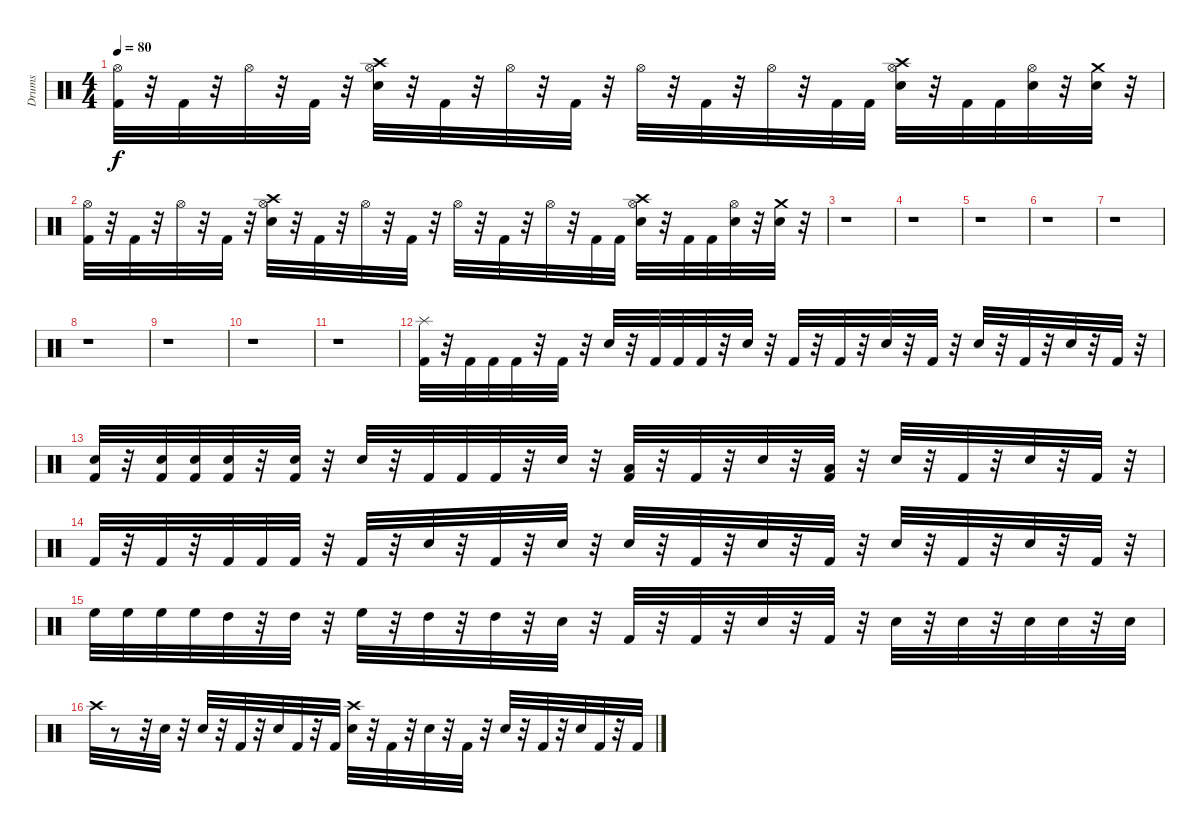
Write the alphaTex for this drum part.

\track ("Drums" "Drums") {instrument percussion}
\staff {score}
\articulation defaults
\ts (4 4)
\tempo 80
\clef neutral
\ks c
("Hi-Hat (open)" "Kick (hit) 2").32{dy f} r.32 "Kick (hit) 2".32 r.32 "Hi-Hat (open)".32 r.32 "Kick (hit) 2".32 r.32 ("Hi-Hat (open)" "Crash high (hit)" "Electric Snare (hit)").32 r.32 "Kick (hit) 2".32 r.32 "Hi-Hat (open)".32 r.32 "Kick (hit) 2".32 r.32 "Hi-Hat (open)".32 r.32 "Kick (hit) 2".32 r.32 "Hi-Hat (open)".32 r.32 "Kick (hit) 2".32 "Kick (hit) 2".32 ("Hi-Hat (open)" "Crash high (hit)" "Electric Snare (hit)").32 r.32 "Kick (hit) 2".32 "Kick (hit) 2".32 ("Hi-Hat (open)" "Electric Snare (hit)").32 r.32 ("Crash medium (hit)" "Electric Snare (hit)").32 r.32 |
("Hi-Hat (open)" "Kick (hit) 2").32 r.32 "Kick (hit) 2".32 r.32 "Hi-Hat (open)".32 r.32 "Kick (hit) 2".32 r.32 ("Hi-Hat (open)" "Crash high (hit)" "Electric Snare (hit)").32 r.32 "Kick (hit) 2".32 r.32 "Hi-Hat (open)".32 r.32 "Kick (hit) 2".32 r.32 "Hi-Hat (open)".32 r.32 "Kick (hit) 2".32 r.32 "Hi-Hat (open)".32 r.32 "Kick (hit) 2".32 "Kick (hit) 2".32 ("Hi-Hat (open)" "Crash high (hit)" "Electric Snare (hit)").32 r.32 "Kick (hit) 2".32 "Kick (hit) 2".32 ("Hi-Hat (open)" "Electric Snare (hit)").32 r.32 ("Crash medium (hit)" "Electric Snare (hit)").32 r.32 |
r.1 |
r.1 |
r.1 |
r.1 |
r.1 |
r.1 |
r.1 |
r.1 |
r.1 |
("Splash (hit)" "Kick (hit) 2").32 r.32 "Kick (hit) 2".32 "Kick (hit) 2".32 "Kick (hit) 2".32 r.32 "Kick (hit) 2".32 r.32 "Electric Snare (hit)".32 r.32 "Kick (hit) 2".32 "Kick (hit) 2".32 "Kick (hit) 2".32 r.32 "Electric Snare (hit)".32 r.32 "Kick (hit) 2".32 r.32 "Kick (hit) 2".32 r.32 "Electric Snare (hit)".32 r.32 "Kick (hit) 2".32 r.32 "Electric Snare (hit)".32 r.32 "Kick (hit) 2".32 r.32 "Electric Snare (hit)".32 r.32 "Kick (hit) 2".32 r.32 |
("Electric Snare (hit)" "Kick (hit) 2").32 r.32 ("Electric Snare (hit)" "Kick (hit) 2").32 ("Electric Snare (hit)" "Kick (hit) 2").32 ("Electric Snare (hit)" "Kick (hit) 2").32 r.32 ("Electric Snare (hit)" "Kick (hit) 2").32 r.32 "Electric Snare (hit)".32 r.32 "Kick (hit) 2".32 "Kick (hit) 2".32 "Kick (hit) 2".32 r.32 "Electric Snare (hit)".32 r.32 ("Low Tom (hit)" "Kick (hit) 2").32 r.32 "Kick (hit) 2".32 r.32 "Electric Snare (hit)".32 r.32 ("Low Tom (hit)" "Kick (hit) 2").32 r.32 "Electric Snare (hit)".32 r.32 "Kick (hit) 2".32 r.32 "Electric Snare (hit)".32 r.32 "Kick (hit) 2".32 r.32 |
"Kick (hit) 2".32 r.32 "Kick (hit) 2".32 r.32 "Kick (hit) 2".32 "Kick (hit) 2".32 "Kick (hit) 2".32 r.32 "Kick (hit) 2".32 r.32 "Electric Snare (hit)".32 r.32 "Kick (hit) 2".32 r.32 "Electric Snare (hit)".32 r.32 "Electric Snare (hit)".32 r.32 "Kick (hit) 2".32 r.32 "Electric Snare (hit)".32 r.32 "Kick (hit) 2".32 r.32 "Electric Snare (hit)".32 r.32 "Kick (hit) 2".32 r.32 "Electric Snare (hit)".32 r.32 "Kick (hit) 2".32 r.32 |
"High Floor Tom (hit)".32 "High Floor Tom (hit)".32 "High Floor Tom (hit)".32 "High Floor Tom (hit)".32 "High Tom (hit)".32 r.32 "High Tom (hit)".32 r.32 "High Floor Tom (hit)".32 r.32 "High Tom (hit)".32 r.32 "High Tom (hit)".32 r.32 "Electric Snare (hit)".32 r.32 "Kick (hit) 2".32 r.32 "Kick (hit) 2".32 r.32 "Electric Snare (hit)".32 r.32 "Kick (hit) 2".32 r.32 "Electric Snare (hit)".32 r.32 "Electric Snare (hit)".32 r.32 "Electric Snare (hit)".32 "Electric Snare (hit)".32 r.32 "Electric Snare (hit)".32 |
"Crash high (hit)".32 r.8 r.32 "Electric Snare (hit)".32 r.32 "Electric Snare (hit)".32 r.32 "Kick (hit) 2".32 r.32 "Electric Snare (hit)".32 "Kick (hit) 2".32 r.32 "Kick (hit) 2".32 ("Crash high (hit)" "Electric Snare (hit)").32 r.32 "Kick (hit) 2".32 r.32 "Electric Snare (hit)".32 r.32 "Kick (hit) 2".32 r.32 "Electric Snare (hit)".32 r.32 "Kick (hit) 2".32 r.32 "Electric Snare (hit)".32 "Kick (hit) 2".32 r.32 "Kick (hit) 2".32
